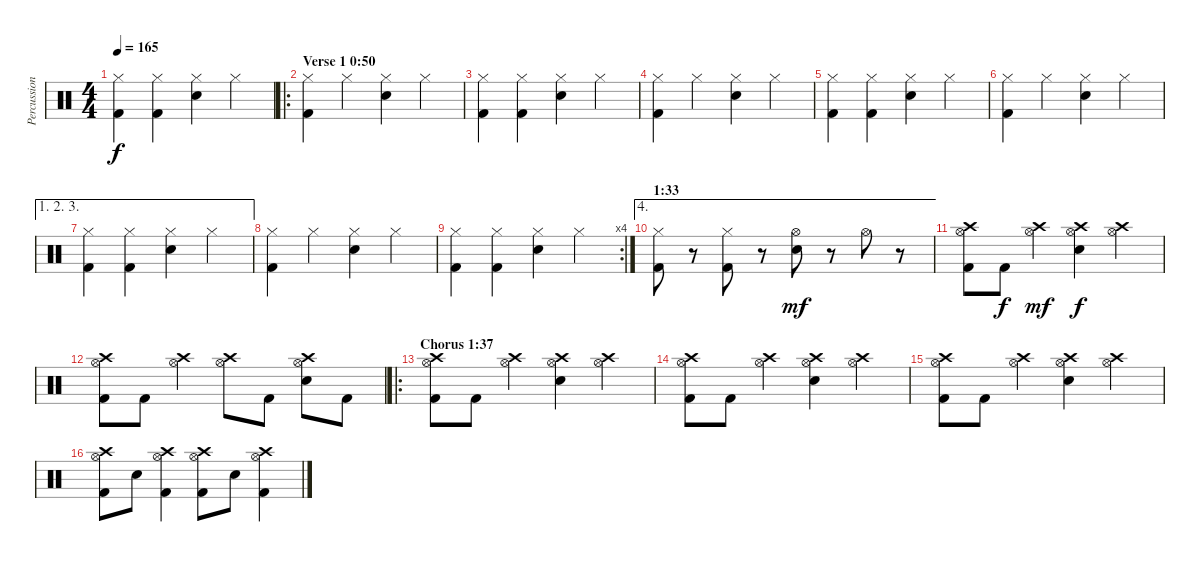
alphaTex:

\track ("Percussion" "Percussion") {instrument percussion}
\staff {score}
\articulation defaults
\ts (4 4)
\tempo 165
\clef neutral
\ks c
("Hi-Hat (closed)" "Kick (hit) 2").4{dy f} ("Hi-Hat (closed)" "Kick (hit) 2").4 ("Hi-Hat (closed)" "Electric Snare (hit)").4 "Hi-Hat (closed)".4 |
\ro
\section ("" "Verse 1 0:50")
("Hi-Hat (closed)" "Kick (hit) 2").4 "Hi-Hat (closed)".4 ("Hi-Hat (closed)" "Electric Snare (hit)").4 "Hi-Hat (closed)".4 |
("Hi-Hat (closed)" "Kick (hit) 2").4 ("Hi-Hat (closed)" "Kick (hit) 2").4 ("Hi-Hat (closed)" "Electric Snare (hit)").4 "Hi-Hat (closed)".4 |
("Hi-Hat (closed)" "Kick (hit) 2").4 "Hi-Hat (closed)".4 ("Hi-Hat (closed)" "Electric Snare (hit)").4 "Hi-Hat (closed)".4 |
("Hi-Hat (closed)" "Kick (hit) 2").4 ("Hi-Hat (closed)" "Kick (hit) 2").4 ("Hi-Hat (closed)" "Electric Snare (hit)").4 "Hi-Hat (closed)".4 |
("Hi-Hat (closed)" "Kick (hit) 2").4 "Hi-Hat (closed)".4 ("Hi-Hat (closed)" "Electric Snare (hit)").4 "Hi-Hat (closed)".4 |
\ae (1 2 3)
("Hi-Hat (closed)" "Kick (hit) 2").4 ("Hi-Hat (closed)" "Kick (hit) 2").4 ("Hi-Hat (closed)" "Electric Snare (hit)").4 "Hi-Hat (closed)".4 |
("Hi-Hat (closed)" "Kick (hit) 2").4 "Hi-Hat (closed)".4 ("Hi-Hat (closed)" "Electric Snare (hit)").4 "Hi-Hat (closed)".4 |
\rc 4
("Hi-Hat (closed)" "Kick (hit) 2").4 ("Hi-Hat (closed)" "Kick (hit) 2").4 ("Hi-Hat (closed)" "Electric Snare (hit)").4 "Hi-Hat (closed)".4 |
\ae 4
\section ("" "1:33")
("Hi-Hat (closed)" "Kick (hit) 2").8 r.8 ("Hi-Hat (closed)" "Kick (hit) 2").8 r.8 ("Hi-Hat (open)" "Electric Snare (hit)").8{dy mf} r.8 "Hi-Hat (open)".8 r.8 |
("Hi-Hat (open)" "Crash high (hit)" "Kick (hit) 2").8 "Kick (hit) 2".8{dy f} ("Hi-Hat (open)" "Crash high (hit)").4{dy mf} ("Hi-Hat (open)" "Crash high (hit)" "Electric Snare (hit)").4{dy f} ("Hi-Hat (open)" "Crash high (hit)").4 |
("Hi-Hat (open)" "Crash high (hit)" "Kick (hit) 2").8 "Kick (hit) 2".8 ("Hi-Hat (open)" "Crash high (hit)").4 ("Hi-Hat (open)" "Crash high (hit)").8 "Kick (hit) 2".8 ("Hi-Hat (open)" "Crash high (hit)" "Electric Snare (hit)").8 "Kick (hit) 2".8 |
\ro
\section ("" "Chorus 1:37")
("Hi-Hat (open)" "Crash high (hit)" "Kick (hit) 2").8 "Kick (hit) 2".8 ("Hi-Hat (open)" "Crash high (hit)").4 ("Hi-Hat (open)" "Crash high (hit)" "Electric Snare (hit)").4 ("Hi-Hat (open)" "Crash high (hit)").4 |
("Hi-Hat (open)" "Crash high (hit)" "Kick (hit) 2").8 "Kick (hit) 2".8 ("Hi-Hat (open)" "Crash high (hit)").4 ("Hi-Hat (open)" "Crash high (hit)" "Electric Snare (hit)").4 ("Hi-Hat (open)" "Crash high (hit)").4 |
("Hi-Hat (open)" "Crash high (hit)" "Kick (hit) 2").8 "Kick (hit) 2".8 ("Hi-Hat (open)" "Crash high (hit)").4 ("Hi-Hat (open)" "Crash high (hit)" "Electric Snare (hit)").4 ("Hi-Hat (open)" "Crash high (hit)").4 |
("Hi-Hat (open)" "Crash high (hit)" "Kick (hit) 2").8 "Electric Snare (hit)".8 ("Hi-Hat (open)" "Crash high (hit)" "Kick (hit) 2").4 ("Hi-Hat (open)" "Crash high (hit)" "Kick (hit) 2").8 "Electric Snare (hit)".8 ("Hi-Hat (open)" "Crash high (hit)" "Kick (hit) 2").4
